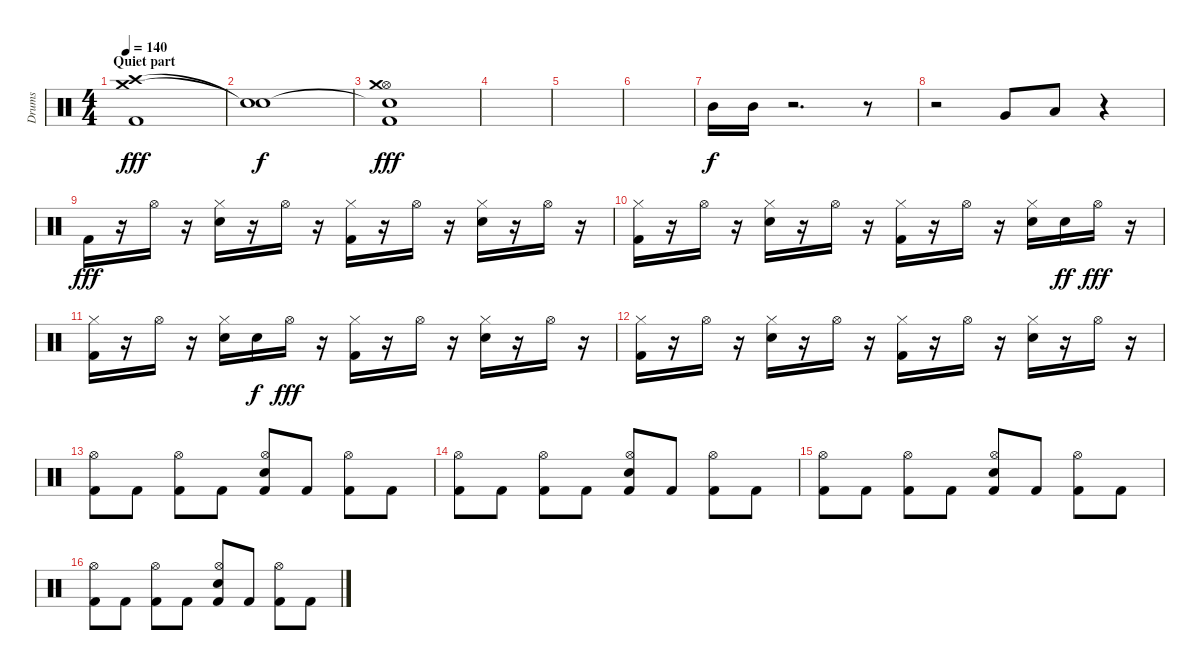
\track ("Drums" "Drums") {instrument percussion}
\staff {score}
\articulation defaults
\ts (4 4)
\section ("" "Quiet part")
\tempo 140
\clef neutral
\ks c
("Crash high (hit)" "Crash medium (hit)" "Kick (hit) 2").1{dy fff} |
("Snare (hit)"{t} "Snare (hit)"{t}).1{dy f} |
("Hi-Hat (open)" "Snare (hit)"{t} "Crash medium (hit)" "Kick (hit) 2").1{dy fff} |
|
|
|
"Mid Tom (hit)".16{dy f} "Mid Tom (hit)".16 r.2{d} r.8 |
r.2 "Very Low Tom (hit)".8 "Low Tom (hit)".8 r.4 |
"Kick (hit) 2".16{dy fff} r.16 "Hi-Hat (open)".16 r.16 ("Hi-Hat (closed)" "Electric Snare (hit)").16 r.16 "Hi-Hat (open)".16 r.16 ("Hi-Hat (closed)" "Kick (hit) 2").16 r.16 "Hi-Hat (open)".16 r.16 ("Hi-Hat (closed)" "Electric Snare (hit)").16 r.16 "Hi-Hat (open)".16 r.16 |
("Hi-Hat (closed)" "Kick (hit) 2").16 r.16 "Hi-Hat (open)".16 r.16 ("Hi-Hat (closed)" "Electric Snare (hit)").16 r.16 "Hi-Hat (open)".16 r.16 ("Hi-Hat (closed)" "Kick (hit) 2").16 r.16 "Hi-Hat (open)".16 r.16 ("Hi-Hat (closed)" "Electric Snare (hit)").16 "Electric Snare (hit)".16{dy ff} "Hi-Hat (open)".16{dy fff} r.16 |
("Hi-Hat (closed)" "Kick (hit) 2").16 r.16 "Hi-Hat (open)".16 r.16 ("Hi-Hat (closed)" "Electric Snare (hit)").16 "Electric Snare (hit)".16{dy f} "Hi-Hat (open)".16{dy fff} r.16 ("Hi-Hat (closed)" "Kick (hit) 2").16 r.16 "Hi-Hat (open)".16 r.16 ("Hi-Hat (closed)" "Electric Snare (hit)").16 r.16 "Hi-Hat (open)".16 r.16 |
("Hi-Hat (closed)" "Kick (hit) 2").16 r.16 "Hi-Hat (open)".16 r.16 ("Hi-Hat (closed)" "Electric Snare (hit)").16 r.16 "Hi-Hat (open)".16 r.16 ("Hi-Hat (closed)" "Kick (hit) 2").16 r.16 "Hi-Hat (open)".16 r.16 ("Hi-Hat (closed)" "Electric Snare (hit)").16 r.16 "Hi-Hat (open)".16 r.16 |
("Hi-Hat (open)" "Kick (hit) 2").8 "Kick (hit) 2".8 ("Hi-Hat (open)" "Kick (hit) 2").8 "Kick (hit) 2".8 ("Hi-Hat (open)" "Electric Snare (hit)" "Kick (hit) 2").8 "Kick (hit) 2".8 ("Hi-Hat (open)" "Kick (hit) 2").8 "Kick (hit) 2".8 |
("Hi-Hat (open)" "Kick (hit) 2").8 "Kick (hit) 2".8 ("Hi-Hat (open)" "Kick (hit) 2").8 "Kick (hit) 2".8 ("Hi-Hat (open)" "Electric Snare (hit)" "Kick (hit) 2").8 "Kick (hit) 2".8 ("Hi-Hat (open)" "Kick (hit) 2").8 "Kick (hit) 2".8 |
("Hi-Hat (open)" "Kick (hit) 2").8 "Kick (hit) 2".8 ("Hi-Hat (open)" "Kick (hit) 2").8 "Kick (hit) 2".8 ("Hi-Hat (open)" "Electric Snare (hit)" "Kick (hit) 2").8 "Kick (hit) 2".8 ("Hi-Hat (open)" "Kick (hit) 2").8 "Kick (hit) 2".8 |
("Hi-Hat (open)" "Kick (hit) 2").8 "Kick (hit) 2".8 ("Hi-Hat (open)" "Kick (hit) 2").8 "Kick (hit) 2".8 ("Hi-Hat (open)" "Electric Snare (hit)" "Kick (hit) 2").8 "Kick (hit) 2".8 ("Hi-Hat (open)" "Kick (hit) 2").8 "Kick (hit) 2".8
